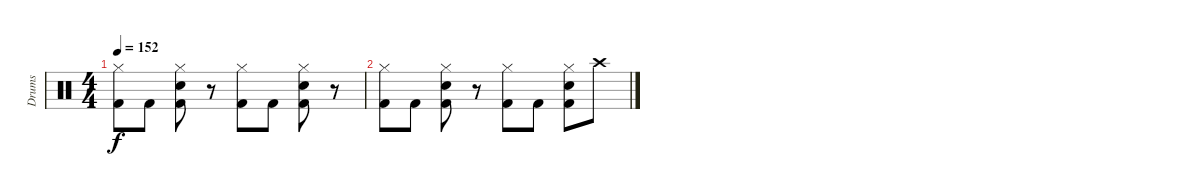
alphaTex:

\track ("Drums" "Drums") {instrument percussion}
\staff {score}
\articulation defaults
\ts (4 4)
\tempo 152
\clef neutral
\ks c
("Hi-Hat (closed)" "Kick (hit) 2").8{dy f} "Kick (hit) 2".8 ("Hi-Hat (closed)" "Electric Snare (hit)" "Kick (hit) 2").8 r.8 ("Hi-Hat (closed)" "Kick (hit) 2").8 "Kick (hit) 2".8 ("Hi-Hat (closed)" "Electric Snare (hit)" "Kick (hit) 2").8 r.8 |
("Hi-Hat (closed)" "Kick (hit) 2").8 "Kick (hit) 2".8 ("Hi-Hat (closed)" "Electric Snare (hit)" "Kick (hit) 2").8 r.8 ("Hi-Hat (closed)" "Kick (hit) 2").8 "Kick (hit) 2".8 ("Hi-Hat (closed)" "Electric Snare (hit)" "Kick (hit) 2").8 "Crash high (hit)".8
